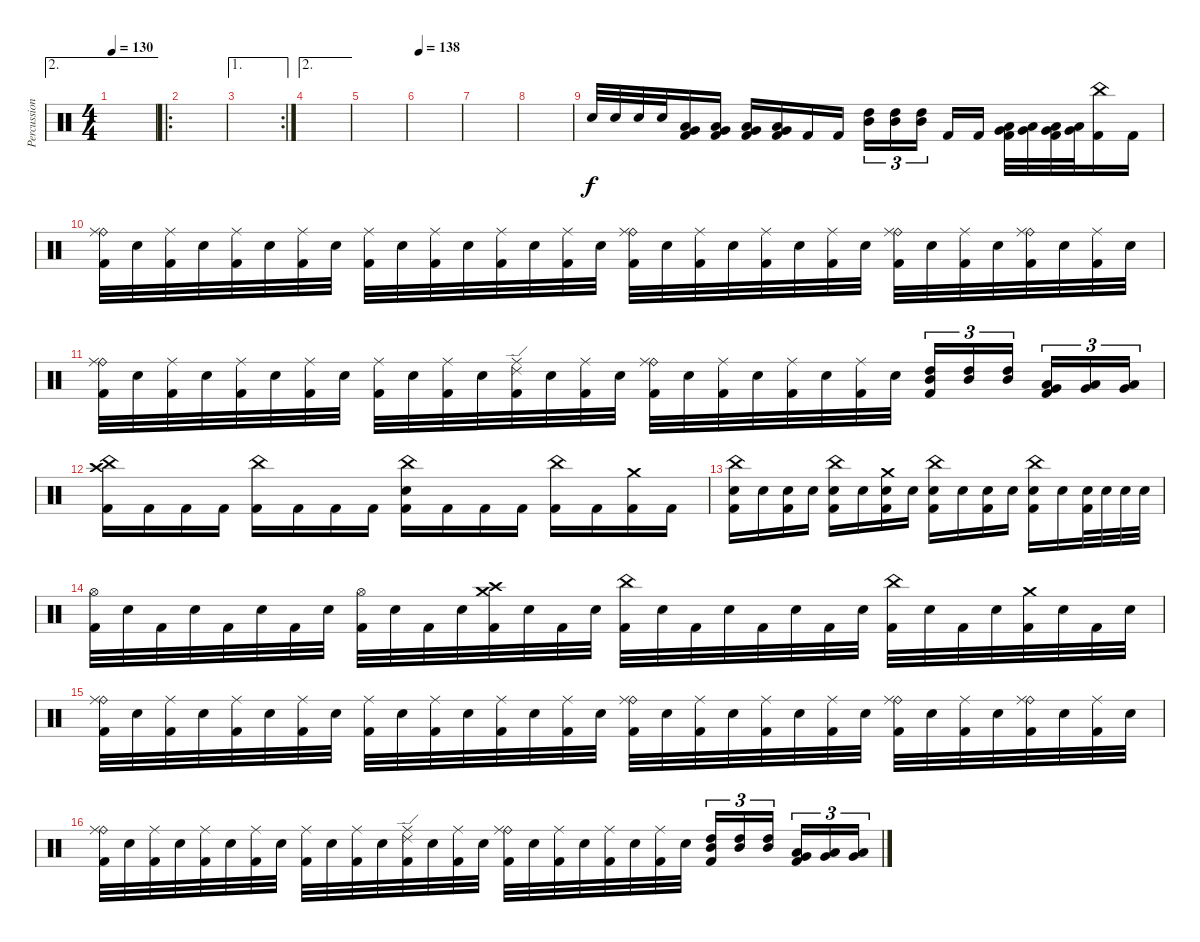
\track ("Percussion" "Percussion") {instrument percussion}
\staff {score}
\articulation defaults
\ae 2
\ts (4 4)
\tempo 130
\clef neutral
\ks c
|
\ro
|
\ae 1
\rc 2
|
\ae 2
|
|
\tempo 138
|
|
|
"Electric Snare (hit)".32 "Electric Snare (hit)".32 "Electric Snare (hit)".32 "Electric Snare (hit)".32 ("Low Floor Tom (hit)" "Very Low Tom (hit)" "Kick (hit) 2").16 ("Low Floor Tom (hit)" "Very Low Tom (hit)" "Kick (hit) 2").16 ("Low Floor Tom (hit)" "Very Low Tom (hit)" "Kick (hit) 2").16 ("Low Floor Tom (hit)" "Very Low Tom (hit)" "Kick (hit) 2").16 "Kick (hit) 2".16 "Kick (hit) 2".16 ("Mid Tom (hit)" "High Tom (hit)").16{tu (3 2)} ("Mid Tom (hit)" "High Tom (hit)").16{tu (3 2)} ("Mid Tom (hit)" "High Tom (hit)").16{tu (3 2) beam splitsecondary} "Kick (hit) 2".16 "Kick (hit) 2".16 ("Very Low Tom (hit)" "Low Tom (hit)" "Kick (hit) 2").32 ("Very Low Tom (hit)" "Low Tom (hit)").32 ("Very Low Tom (hit)" "Low Tom (hit)" "Kick (hit) 2").32 ("Very Low Tom (hit)" "Low Tom (hit)").32 ("China (hit)" "Kick (hit) 2").16 "Kick (hit) 2".16 |
("Ride (bell)" "Ride (middle)" "Kick (hit) 2").32 "Electric Snare (hit)".32 ("Ride (middle)" "Kick (hit) 2").32 "Electric Snare (hit)".32 ("Ride (middle)" "Kick (hit) 2").32 "Electric Snare (hit)".32 ("Ride (middle)" "Kick (hit) 2").32 "Electric Snare (hit)".32 ("Ride (middle)" "Kick (hit) 2").32 "Electric Snare (hit)".32 ("Ride (middle)" "Kick (hit) 2").32 "Electric Snare (hit)".32 ("Ride (middle)" "Kick (hit) 2").32 "Electric Snare (hit)".32 ("Ride (middle)" "Kick (hit) 2").32 "Electric Snare (hit)".32 ("Ride (bell)" "Ride (middle)" "Kick (hit) 2").32 "Electric Snare (hit)".32 ("Ride (middle)" "Kick (hit) 2").32 "Electric Snare (hit)".32 ("Ride (middle)" "Kick (hit) 2").32 "Electric Snare (hit)".32 ("Ride (middle)" "Kick (hit) 2").32 "Electric Snare (hit)".32 ("Ride (bell)" "Ride (middle)" "Kick (hit) 2").32 "Electric Snare (hit)".32 ("Ride (middle)" "Kick (hit) 2").32 "Electric Snare (hit)".32 ("Ride (bell)" "Ride (middle)" "Kick (hit) 2").32 "Electric Snare (hit)".32 ("Ride (middle)" "Kick (hit) 2").32 "Electric Snare (hit)".32 |
("Ride (bell)" "Ride (middle)" "Kick (hit) 2").32 "Electric Snare (hit)".32 ("Ride (middle)" "Kick (hit) 2").32 "Electric Snare (hit)".32 ("Ride (middle)" "Kick (hit) 2").32 "Electric Snare (hit)".32 ("Ride (middle)" "Kick (hit) 2").32 "Electric Snare (hit)".32 ("Ride (middle)" "Kick (hit) 2").32 "Electric Snare (hit)".32 ("Ride (middle)" "Kick (hit) 2").32 "Electric Snare (hit)".32 ("Ride (edge) 2" "Ride (middle)" "Kick (hit) 2").32 "Electric Snare (hit)".32 ("Ride (middle)" "Kick (hit) 2").32 "Electric Snare (hit)".32 ("Ride (bell)" "Ride (middle)" "Kick (hit) 2").32 "Electric Snare (hit)".32 ("Ride (middle)" "Kick (hit) 2").32 "Electric Snare (hit)".32 ("Ride (middle)" "Kick (hit) 2").32 "Electric Snare (hit)".32 ("Ride (middle)" "Kick (hit) 2").32 "Electric Snare (hit)".32 ("High Tom (hit)" "Mid Tom (hit)" "Kick (hit) 2").16{tu (3 2)} ("High Tom (hit)" "Mid Tom (hit)").16{tu (3 2)} ("High Tom (hit)" "Mid Tom (hit)").16{tu (3 2) beam splitsecondary} ("Low Tom (hit)" "Very Low Tom (hit)" "Kick (hit) 2").16{tu (3 2)} ("Low Tom (hit)" "Very Low Tom (hit)").16{tu (3 2)} ("Low Tom (hit)" "Very Low Tom (hit)").16{tu (3 2)} |
("China (hit)" "Crash high (hit)" "Kick (hit) 2").16 "Kick (hit) 2".16 "Kick (hit) 2".16 "Kick (hit) 2".16 ("China (hit)" "Kick (hit) 2").16 "Kick (hit) 2".16 "Kick (hit) 2".16 "Kick (hit) 2".16 ("China (hit)" "Electric Snare (hit)" "Kick (hit) 2").16 "Kick (hit) 2".16 "Kick (hit) 2".16 "Kick (hit) 2".16 ("China (hit)" "Kick (hit) 2").16 "Kick (hit) 2".16 ("Crash medium (hit)" "Kick (hit) 2").16 "Kick (hit) 2".16 |
("China (hit)" "Electric Snare (hit)" "Kick (hit) 2").16 "Electric Snare (hit)".16 ("Electric Snare (hit)" "Kick (hit) 2").16 "Electric Snare (hit)".16 ("China (hit)" "Electric Snare (hit)" "Kick (hit) 2").16 "Electric Snare (hit)".16 ("Crash medium (hit)" "Electric Snare (hit)" "Kick (hit) 2").16 "Electric Snare (hit)".16 ("China (hit)" "Electric Snare (hit)" "Kick (hit) 2").16 "Electric Snare (hit)".16 ("Electric Snare (hit)" "Kick (hit) 2").16 "Electric Snare (hit)".16 ("China (hit)" "Electric Snare (hit)" "Kick (hit) 2").16 "Electric Snare (hit)".16 ("Electric Snare (hit)" "Kick (hit) 2").32 "Electric Snare (hit)".32 "Electric Snare (hit)".32 "Electric Snare (hit)".32 |
("Hi-Hat (open)" "Kick (hit) 2").32 "Electric Snare (hit)".32 "Kick (hit) 2".32 "Electric Snare (hit)".32 "Kick (hit) 2".32 "Electric Snare (hit)".32 "Kick (hit) 2".32 "Electric Snare (hit)".32 ("Hi-Hat (open)" "Kick (hit) 2").32 "Electric Snare (hit)".32 "Kick (hit) 2".32 "Electric Snare (hit)".32 ("Crash medium (hit)" "Crash high (hit)" "Kick (hit) 2").32 "Electric Snare (hit)".32 "Kick (hit) 2".32 "Electric Snare (hit)".32 ("China (hit)" "Kick (hit) 2").32 "Electric Snare (hit)".32 "Kick (hit) 2".32 "Electric Snare (hit)".32 "Kick (hit) 2".32 "Electric Snare (hit)".32 "Kick (hit) 2".32 "Electric Snare (hit)".32 ("China (hit)" "Kick (hit) 2").32 "Electric Snare (hit)".32 "Kick (hit) 2".32 "Electric Snare (hit)".32 ("Crash medium (hit)" "Kick (hit) 2").32 "Electric Snare (hit)".32 "Kick (hit) 2".32 "Electric Snare (hit)".32 |
("Ride (bell)" "Ride (middle)" "Kick (hit) 2").32 "Electric Snare (hit)".32 ("Ride (middle)" "Kick (hit) 2").32 "Electric Snare (hit)".32 ("Ride (middle)" "Kick (hit) 2").32 "Electric Snare (hit)".32 ("Ride (middle)" "Kick (hit) 2").32 "Electric Snare (hit)".32 ("Ride (middle)" "Kick (hit) 2").32 "Electric Snare (hit)".32 ("Ride (middle)" "Kick (hit) 2").32 "Electric Snare (hit)".32 ("Ride (middle)" "Kick (hit) 2").32 "Electric Snare (hit)".32 ("Ride (middle)" "Kick (hit) 2").32 "Electric Snare (hit)".32 ("Ride (bell)" "Ride (middle)" "Kick (hit) 2").32 "Electric Snare (hit)".32 ("Ride (middle)" "Kick (hit) 2").32 "Electric Snare (hit)".32 ("Ride (middle)" "Kick (hit) 2").32 "Electric Snare (hit)".32 ("Ride (middle)" "Kick (hit) 2").32 "Electric Snare (hit)".32 ("Ride (bell)" "Ride (middle)" "Kick (hit) 2").32 "Electric Snare (hit)".32 ("Ride (middle)" "Kick (hit) 2").32 "Electric Snare (hit)".32 ("Ride (bell)" "Ride (middle)" "Kick (hit) 2").32 "Electric Snare (hit)".32 ("Ride (middle)" "Kick (hit) 2").32 "Electric Snare (hit)".32 |
("Ride (bell)" "Ride (middle)" "Kick (hit) 2").32 "Electric Snare (hit)".32 ("Ride (middle)" "Kick (hit) 2").32 "Electric Snare (hit)".32 ("Ride (middle)" "Kick (hit) 2").32 "Electric Snare (hit)".32 ("Ride (middle)" "Kick (hit) 2").32 "Electric Snare (hit)".32 ("Ride (middle)" "Kick (hit) 2").32 "Electric Snare (hit)".32 ("Ride (middle)" "Kick (hit) 2").32 "Electric Snare (hit)".32 ("Ride (edge) 2" "Ride (middle)" "Kick (hit) 2").32 "Electric Snare (hit)".32 ("Ride (middle)" "Kick (hit) 2").32 "Electric Snare (hit)".32 ("Ride (bell)" "Ride (middle)" "Kick (hit) 2").32 "Electric Snare (hit)".32 ("Ride (middle)" "Kick (hit) 2").32 "Electric Snare (hit)".32 ("Ride (middle)" "Kick (hit) 2").32 "Electric Snare (hit)".32 ("Ride (middle)" "Kick (hit) 2").32 "Electric Snare (hit)".32 ("High Tom (hit)" "Mid Tom (hit)" "Kick (hit) 2").16{tu (3 2)} ("High Tom (hit)" "Mid Tom (hit)").16{tu (3 2)} ("High Tom (hit)" "Mid Tom (hit)").16{tu (3 2) beam splitsecondary} ("Low Tom (hit)" "Very Low Tom (hit)" "Kick (hit) 2").16{tu (3 2)} ("Low Tom (hit)" "Very Low Tom (hit)").16{tu (3 2)} ("Low Tom (hit)" "Very Low Tom (hit)").16{tu (3 2)}
